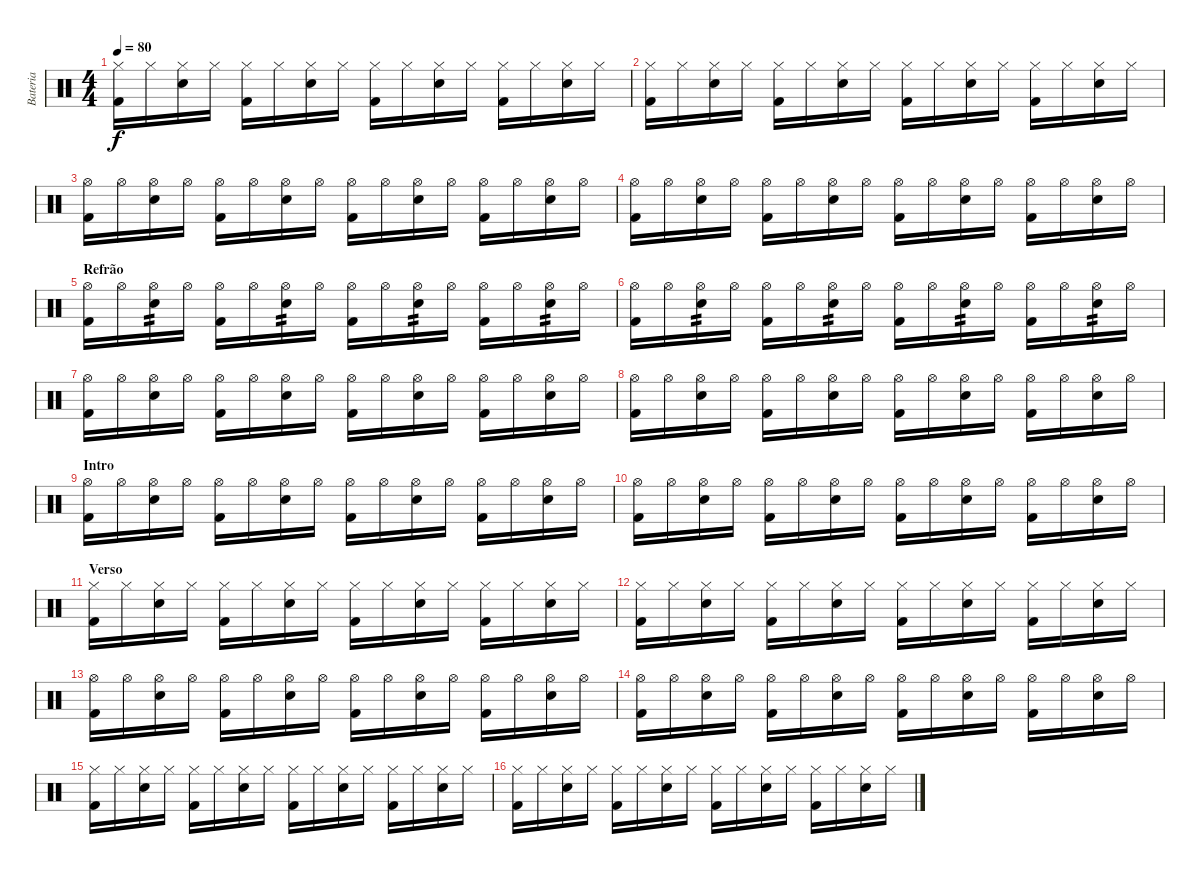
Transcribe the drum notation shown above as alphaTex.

\track ("Bateria" "Bateria") {instrument percussion}
\staff {score}
\articulation defaults
\ts (4 4)
\tempo 80
\clef neutral
\ks c
("Hi-Hat (closed)" "Kick (hit) 2").16{dy f} "Hi-Hat (closed)".16 ("Hi-Hat (closed)" "Electric Snare (hit)").16 "Hi-Hat (closed)".16 ("Hi-Hat (closed)" "Kick (hit) 2").16 "Hi-Hat (closed)".16 ("Hi-Hat (closed)" "Electric Snare (hit)").16 "Hi-Hat (closed)".16 ("Hi-Hat (closed)" "Kick (hit) 2").16 "Hi-Hat (closed)".16 ("Hi-Hat (closed)" "Electric Snare (hit)").16 "Hi-Hat (closed)".16 ("Hi-Hat (closed)" "Kick (hit) 2").16 "Hi-Hat (closed)".16 ("Hi-Hat (closed)" "Electric Snare (hit)").16 "Hi-Hat (closed)".16 |
("Hi-Hat (closed)" "Kick (hit) 2").16 "Hi-Hat (closed)".16 ("Hi-Hat (closed)" "Electric Snare (hit)").16 "Hi-Hat (closed)".16 ("Hi-Hat (closed)" "Kick (hit) 2").16 "Hi-Hat (closed)".16 ("Hi-Hat (closed)" "Electric Snare (hit)").16 "Hi-Hat (closed)".16 ("Hi-Hat (closed)" "Kick (hit) 2").16 "Hi-Hat (closed)".16 ("Hi-Hat (closed)" "Electric Snare (hit)").16 "Hi-Hat (closed)".16 ("Hi-Hat (closed)" "Kick (hit) 2").16 "Hi-Hat (closed)".16 ("Hi-Hat (closed)" "Electric Snare (hit)").16 "Hi-Hat (closed)".16 |
("Hi-Hat (open)" "Kick (hit) 2").16 "Hi-Hat (open)".16 ("Hi-Hat (open)" "Electric Snare (hit)").16 "Hi-Hat (open)".16 ("Hi-Hat (open)" "Kick (hit) 2").16 "Hi-Hat (open)".16 ("Hi-Hat (open)" "Electric Snare (hit)").16 "Hi-Hat (open)".16 ("Hi-Hat (open)" "Kick (hit) 2").16 "Hi-Hat (open)".16 ("Hi-Hat (open)" "Electric Snare (hit)").16 "Hi-Hat (open)".16 ("Hi-Hat (open)" "Kick (hit) 2").16 "Hi-Hat (open)".16 ("Hi-Hat (open)" "Electric Snare (hit)").16 "Hi-Hat (open)".16 |
("Hi-Hat (open)" "Kick (hit) 2").16 "Hi-Hat (open)".16 ("Hi-Hat (open)" "Electric Snare (hit)").16 "Hi-Hat (open)".16 ("Hi-Hat (open)" "Kick (hit) 2").16 "Hi-Hat (open)".16 ("Hi-Hat (open)" "Electric Snare (hit)").16 "Hi-Hat (open)".16 ("Hi-Hat (open)" "Kick (hit) 2").16 "Hi-Hat (open)".16 ("Hi-Hat (open)" "Electric Snare (hit)").16 "Hi-Hat (open)".16 ("Hi-Hat (open)" "Kick (hit) 2").16 "Hi-Hat (open)".16 ("Hi-Hat (open)" "Electric Snare (hit)").16 "Hi-Hat (open)".16 |
\section ("" "Refrão")
("Hi-Hat (open)" "Kick (hit) 2").16 "Hi-Hat (open)".16 ("Hi-Hat (open)" "Electric Snare (hit)").16{tp 2} "Hi-Hat (open)".16 ("Hi-Hat (open)" "Kick (hit) 2").16 "Hi-Hat (open)".16 ("Hi-Hat (open)" "Electric Snare (hit)").16{tp 2} "Hi-Hat (open)".16 ("Hi-Hat (open)" "Kick (hit) 2").16 "Hi-Hat (open)".16 ("Hi-Hat (open)" "Electric Snare (hit)").16{tp 2} "Hi-Hat (open)".16 ("Hi-Hat (open)" "Kick (hit) 2").16 "Hi-Hat (open)".16 ("Hi-Hat (open)" "Electric Snare (hit)").16{tp 2} "Hi-Hat (open)".16 |
("Hi-Hat (open)" "Kick (hit) 2").16 "Hi-Hat (open)".16 ("Hi-Hat (open)" "Electric Snare (hit)").16{tp 2} "Hi-Hat (open)".16 ("Hi-Hat (open)" "Kick (hit) 2").16 "Hi-Hat (open)".16 ("Hi-Hat (open)" "Electric Snare (hit)").16{tp 2} "Hi-Hat (open)".16 ("Hi-Hat (open)" "Kick (hit) 2").16 "Hi-Hat (open)".16 ("Hi-Hat (open)" "Electric Snare (hit)").16{tp 2} "Hi-Hat (open)".16 ("Hi-Hat (open)" "Kick (hit) 2").16 "Hi-Hat (open)".16 ("Hi-Hat (open)" "Electric Snare (hit)").16{tp 2} "Hi-Hat (open)".16 |
("Hi-Hat (open)" "Kick (hit) 2").16 "Hi-Hat (open)".16 ("Hi-Hat (open)" "Electric Snare (hit)").16 "Hi-Hat (open)".16 ("Hi-Hat (open)" "Kick (hit) 2").16 "Hi-Hat (open)".16 ("Hi-Hat (open)" "Electric Snare (hit)").16 "Hi-Hat (open)".16 ("Hi-Hat (open)" "Kick (hit) 2").16 "Hi-Hat (open)".16 ("Hi-Hat (open)" "Electric Snare (hit)").16 "Hi-Hat (open)".16 ("Hi-Hat (open)" "Kick (hit) 2").16 "Hi-Hat (open)".16 ("Hi-Hat (open)" "Electric Snare (hit)").16 "Hi-Hat (open)".16 |
("Hi-Hat (open)" "Kick (hit) 2").16 "Hi-Hat (open)".16 ("Hi-Hat (open)" "Electric Snare (hit)").16 "Hi-Hat (open)".16 ("Hi-Hat (open)" "Kick (hit) 2").16 "Hi-Hat (open)".16 ("Hi-Hat (open)" "Electric Snare (hit)").16 "Hi-Hat (open)".16 ("Hi-Hat (open)" "Kick (hit) 2").16 "Hi-Hat (open)".16 ("Hi-Hat (open)" "Electric Snare (hit)").16 "Hi-Hat (open)".16 ("Hi-Hat (open)" "Kick (hit) 2").16 "Hi-Hat (open)".16 ("Hi-Hat (open)" "Electric Snare (hit)").16 "Hi-Hat (open)".16 |
\section ("" "Intro")
("Hi-Hat (open)" "Kick (hit) 2").16 "Hi-Hat (open)".16 ("Hi-Hat (open)" "Electric Snare (hit)").16 "Hi-Hat (open)".16 ("Hi-Hat (open)" "Kick (hit) 2").16 "Hi-Hat (open)".16 ("Hi-Hat (open)" "Electric Snare (hit)").16 "Hi-Hat (open)".16 ("Hi-Hat (open)" "Kick (hit) 2").16 "Hi-Hat (open)".16 ("Hi-Hat (open)" "Electric Snare (hit)").16 "Hi-Hat (open)".16 ("Hi-Hat (open)" "Kick (hit) 2").16 "Hi-Hat (open)".16 ("Hi-Hat (open)" "Electric Snare (hit)").16 "Hi-Hat (open)".16 |
("Hi-Hat (open)" "Kick (hit) 2").16 "Hi-Hat (open)".16 ("Hi-Hat (open)" "Electric Snare (hit)").16 "Hi-Hat (open)".16 ("Hi-Hat (open)" "Kick (hit) 2").16 "Hi-Hat (open)".16 ("Hi-Hat (open)" "Electric Snare (hit)").16 "Hi-Hat (open)".16 ("Hi-Hat (open)" "Kick (hit) 2").16 "Hi-Hat (open)".16 ("Hi-Hat (open)" "Electric Snare (hit)").16 "Hi-Hat (open)".16 ("Hi-Hat (open)" "Kick (hit) 2").16 "Hi-Hat (open)".16 ("Hi-Hat (open)" "Electric Snare (hit)").16 "Hi-Hat (open)".16 |
\section ("" "Verso")
("Hi-Hat (closed)" "Kick (hit) 2").16 "Hi-Hat (closed)".16 ("Hi-Hat (closed)" "Electric Snare (hit)").16 "Hi-Hat (closed)".16 ("Hi-Hat (closed)" "Kick (hit) 2").16 "Hi-Hat (closed)".16 ("Hi-Hat (closed)" "Electric Snare (hit)").16 "Hi-Hat (closed)".16 ("Hi-Hat (closed)" "Kick (hit) 2").16 "Hi-Hat (closed)".16 ("Hi-Hat (closed)" "Electric Snare (hit)").16 "Hi-Hat (closed)".16 ("Hi-Hat (closed)" "Kick (hit) 2").16 "Hi-Hat (closed)".16 ("Hi-Hat (closed)" "Electric Snare (hit)").16 "Hi-Hat (closed)".16 |
("Hi-Hat (closed)" "Kick (hit) 2").16 "Hi-Hat (closed)".16 ("Hi-Hat (closed)" "Electric Snare (hit)").16 "Hi-Hat (closed)".16 ("Hi-Hat (closed)" "Kick (hit) 2").16 "Hi-Hat (closed)".16 ("Hi-Hat (closed)" "Electric Snare (hit)").16 "Hi-Hat (closed)".16 ("Hi-Hat (closed)" "Kick (hit) 2").16 "Hi-Hat (closed)".16 ("Hi-Hat (closed)" "Electric Snare (hit)").16 "Hi-Hat (closed)".16 ("Hi-Hat (closed)" "Kick (hit) 2").16 "Hi-Hat (closed)".16 ("Hi-Hat (closed)" "Electric Snare (hit)").16 "Hi-Hat (closed)".16 |
("Hi-Hat (open)" "Kick (hit) 2").16 "Hi-Hat (open)".16 ("Hi-Hat (open)" "Electric Snare (hit)").16 "Hi-Hat (open)".16 ("Hi-Hat (open)" "Kick (hit) 2").16 "Hi-Hat (open)".16 ("Hi-Hat (open)" "Electric Snare (hit)").16 "Hi-Hat (open)".16 ("Hi-Hat (open)" "Kick (hit) 2").16 "Hi-Hat (open)".16 ("Hi-Hat (open)" "Electric Snare (hit)").16 "Hi-Hat (open)".16 ("Hi-Hat (open)" "Kick (hit) 2").16 "Hi-Hat (open)".16 ("Hi-Hat (open)" "Electric Snare (hit)").16 "Hi-Hat (open)".16 |
("Hi-Hat (open)" "Kick (hit) 2").16 "Hi-Hat (open)".16 ("Hi-Hat (open)" "Electric Snare (hit)").16 "Hi-Hat (open)".16 ("Hi-Hat (open)" "Kick (hit) 2").16 "Hi-Hat (open)".16 ("Hi-Hat (open)" "Electric Snare (hit)").16 "Hi-Hat (open)".16 ("Hi-Hat (open)" "Kick (hit) 2").16 "Hi-Hat (open)".16 ("Hi-Hat (open)" "Electric Snare (hit)").16 "Hi-Hat (open)".16 ("Hi-Hat (open)" "Kick (hit) 2").16 "Hi-Hat (open)".16 ("Hi-Hat (open)" "Electric Snare (hit)").16 "Hi-Hat (open)".16 |
("Hi-Hat (closed)" "Kick (hit) 2").16 "Hi-Hat (closed)".16 ("Hi-Hat (closed)" "Electric Snare (hit)").16 "Hi-Hat (closed)".16 ("Hi-Hat (closed)" "Kick (hit) 2").16 "Hi-Hat (closed)".16 ("Hi-Hat (closed)" "Electric Snare (hit)").16 "Hi-Hat (closed)".16 ("Hi-Hat (closed)" "Kick (hit) 2").16 "Hi-Hat (closed)".16 ("Hi-Hat (closed)" "Electric Snare (hit)").16 "Hi-Hat (closed)".16 ("Hi-Hat (closed)" "Kick (hit) 2").16 "Hi-Hat (closed)".16 ("Hi-Hat (closed)" "Electric Snare (hit)").16 "Hi-Hat (closed)".16 |
("Hi-Hat (closed)" "Kick (hit) 2").16 "Hi-Hat (closed)".16 ("Hi-Hat (closed)" "Electric Snare (hit)").16 "Hi-Hat (closed)".16 ("Hi-Hat (closed)" "Kick (hit) 2").16 "Hi-Hat (closed)".16 ("Hi-Hat (closed)" "Electric Snare (hit)").16 "Hi-Hat (closed)".16 ("Hi-Hat (closed)" "Kick (hit) 2").16 "Hi-Hat (closed)".16 ("Hi-Hat (closed)" "Electric Snare (hit)").16 "Hi-Hat (closed)".16 ("Hi-Hat (closed)" "Kick (hit) 2").16 "Hi-Hat (closed)".16 ("Hi-Hat (closed)" "Electric Snare (hit)").16 "Hi-Hat (closed)".16
